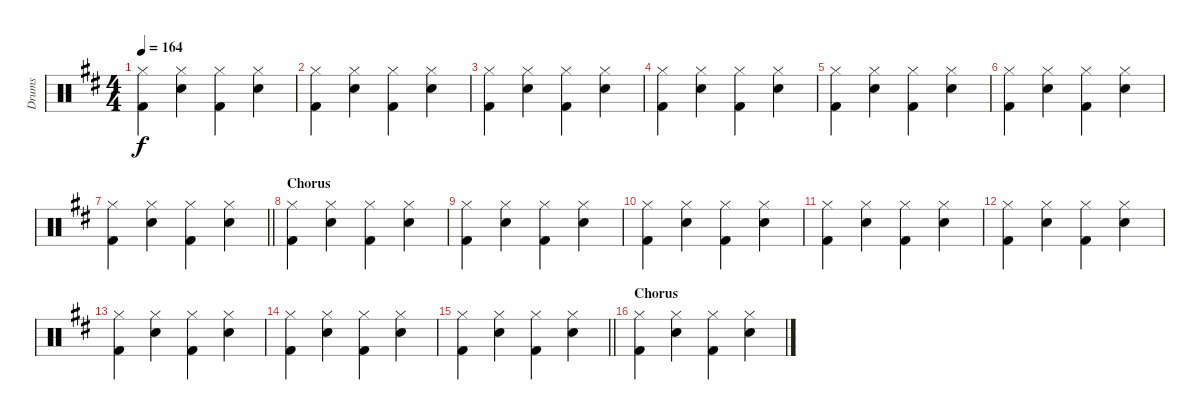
\track ("Drums" "Drums") {instrument percussion}
\staff {score}
\articulation defaults
\ts (4 4)
\tempo 164
\clef neutral
\ks d
("Hi-Hat (closed)" "Kick (hit) 2").4{dy f} ("Hi-Hat (closed)" "Snare (hit) 2").4 ("Hi-Hat (closed)" "Kick (hit) 2").4 ("Hi-Hat (closed)" "Snare (hit) 2").4 |
("Hi-Hat (closed)" "Kick (hit) 2").4 ("Hi-Hat (closed)" "Snare (hit) 2").4 ("Hi-Hat (closed)" "Kick (hit) 2").4 ("Hi-Hat (closed)" "Snare (hit) 2").4 |
("Hi-Hat (closed)" "Kick (hit) 2").4 ("Hi-Hat (closed)" "Snare (hit) 2").4 ("Hi-Hat (closed)" "Kick (hit) 2").4 ("Hi-Hat (closed)" "Snare (hit) 2").4 |
("Hi-Hat (closed)" "Kick (hit) 2").4 ("Hi-Hat (closed)" "Snare (hit) 2").4 ("Hi-Hat (closed)" "Kick (hit) 2").4 ("Hi-Hat (closed)" "Snare (hit) 2").4 |
("Hi-Hat (closed)" "Kick (hit) 2").4 ("Hi-Hat (closed)" "Snare (hit) 2").4 ("Hi-Hat (closed)" "Kick (hit) 2").4 ("Hi-Hat (closed)" "Snare (hit) 2").4 |
("Hi-Hat (closed)" "Kick (hit) 2").4 ("Hi-Hat (closed)" "Snare (hit) 2").4 ("Hi-Hat (closed)" "Kick (hit) 2").4 ("Hi-Hat (closed)" "Snare (hit) 2").4 |
\barLineRight lightlight
("Hi-Hat (closed)" "Kick (hit) 2").4 ("Hi-Hat (closed)" "Snare (hit) 2").4 ("Hi-Hat (closed)" "Kick (hit) 2").4 ("Hi-Hat (closed)" "Snare (hit) 2").4 |
\section ("" "Chorus")
("Hi-Hat (closed)" "Kick (hit) 2").4 ("Hi-Hat (closed)" "Snare (hit) 2").4 ("Hi-Hat (closed)" "Kick (hit) 2").4 ("Hi-Hat (closed)" "Snare (hit) 2").4 |
("Hi-Hat (closed)" "Kick (hit) 2").4 ("Hi-Hat (closed)" "Snare (hit) 2").4 ("Hi-Hat (closed)" "Kick (hit) 2").4 ("Hi-Hat (closed)" "Snare (hit) 2").4 |
("Hi-Hat (closed)" "Kick (hit) 2").4 ("Hi-Hat (closed)" "Snare (hit) 2").4 ("Hi-Hat (closed)" "Kick (hit) 2").4 ("Hi-Hat (closed)" "Snare (hit) 2").4 |
("Hi-Hat (closed)" "Kick (hit) 2").4 ("Hi-Hat (closed)" "Snare (hit) 2").4 ("Hi-Hat (closed)" "Kick (hit) 2").4 ("Hi-Hat (closed)" "Snare (hit) 2").4 |
("Hi-Hat (closed)" "Kick (hit) 2").4 ("Hi-Hat (closed)" "Snare (hit) 2").4 ("Hi-Hat (closed)" "Kick (hit) 2").4 ("Hi-Hat (closed)" "Snare (hit) 2").4 |
("Hi-Hat (closed)" "Kick (hit) 2").4 ("Hi-Hat (closed)" "Snare (hit) 2").4 ("Hi-Hat (closed)" "Kick (hit) 2").4 ("Hi-Hat (closed)" "Snare (hit) 2").4 |
("Hi-Hat (closed)" "Kick (hit) 2").4 ("Hi-Hat (closed)" "Snare (hit) 2").4 ("Hi-Hat (closed)" "Kick (hit) 2").4 ("Hi-Hat (closed)" "Snare (hit) 2").4 |
\barLineRight lightlight
("Hi-Hat (closed)" "Kick (hit) 2").4 ("Hi-Hat (closed)" "Snare (hit) 2").4 ("Hi-Hat (closed)" "Kick (hit) 2").4 ("Hi-Hat (closed)" "Snare (hit) 2").4 |
\section ("" "Chorus")
("Hi-Hat (closed)" "Kick (hit) 2").4 ("Hi-Hat (closed)" "Snare (hit) 2").4 ("Hi-Hat (closed)" "Kick (hit) 2").4 ("Hi-Hat (closed)" "Snare (hit) 2").4
